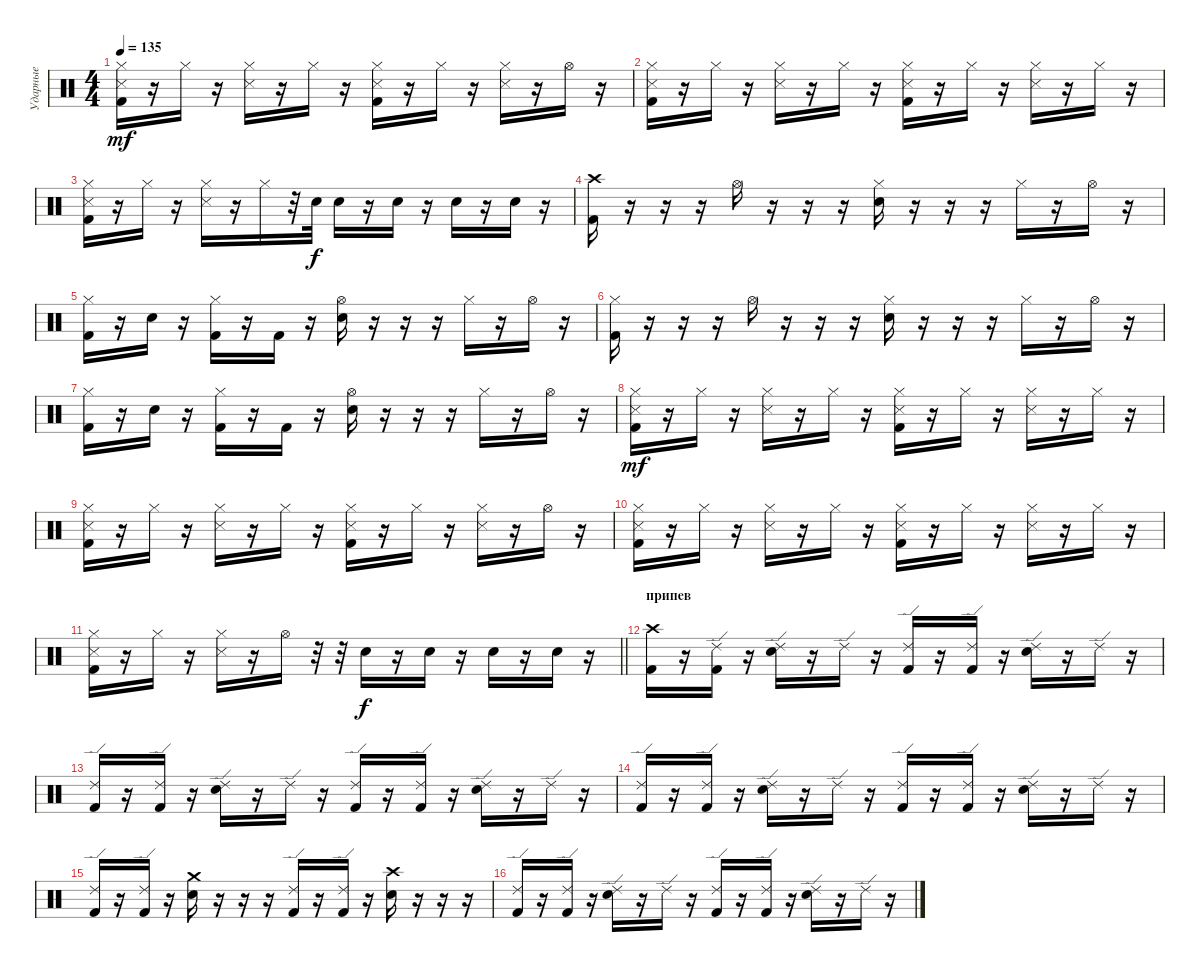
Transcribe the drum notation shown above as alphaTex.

\track ("Ударные" "Ударные") {instrument percussion}
\staff {score}
\articulation defaults
\ts (4 4)
\tempo 135
\clef neutral
\ks c
("Hi-Hat (closed)" "Snare (side stick) 3" "Kick (hit) 2").16{dy mf} r.16 "Hi-Hat (closed)".16 r.16 ("Hi-Hat (closed)" "Snare (side stick) 3").16 r.16 "Hi-Hat (closed)".16 r.16 ("Hi-Hat (closed)" "Snare (side stick) 3" "Kick (hit) 2").16 r.16 "Hi-Hat (closed)".16 r.16 ("Hi-Hat (closed)" "Snare (side stick) 3").16 r.16 "Hi-Hat (open)".16 r.16 |
("Hi-Hat (closed)" "Snare (side stick) 3" "Kick (hit) 2").16 r.16 "Hi-Hat (closed)".16 r.16 ("Hi-Hat (closed)" "Snare (side stick) 3").16 r.16 "Hi-Hat (closed)".16 r.16 ("Hi-Hat (closed)" "Snare (side stick) 3" "Kick (hit) 2").16 r.16 "Hi-Hat (closed)".16 r.16 ("Hi-Hat (closed)" "Snare (side stick) 3").16 r.16 "Hi-Hat (closed)".16 r.16 |
("Hi-Hat (closed)" "Snare (side stick) 3" "Kick (hit) 2").16 r.16 "Hi-Hat (closed)".16 r.16 ("Hi-Hat (closed)" "Snare (side stick) 3").16 r.16 "Hi-Hat (closed)".16 r.32 "Electric Snare (hit)".32{dy f} "Electric Snare (hit)".16 r.16 "Electric Snare (hit)".16 r.16 "Electric Snare (hit)".16 r.16 "Electric Snare (hit)".16 r.16 |
("Crash high (hit)" "Kick (hit) 2").16 r.16 r.16 r.16 "Hi-Hat (open)".16 r.16 r.16 r.16 ("Hi-Hat (closed)" "Electric Snare (hit)").16 r.16 r.16 r.16 "Hi-Hat (closed)".16 r.16 "Hi-Hat (open)".16 r.16 |
("Hi-Hat (closed)" "Kick (hit) 2").16 r.16 "Electric Snare (hit)".16 r.16 ("Hi-Hat (closed)" "Kick (hit) 2").16 r.16 "Kick (hit) 2".16 r.16 ("Hi-Hat (open)" "Electric Snare (hit)").16 r.16 r.16 r.16 "Hi-Hat (closed)".16 r.16 "Hi-Hat (open)".16 r.16 |
("Hi-Hat (closed)" "Kick (hit) 2").16 r.16 r.16 r.16 "Hi-Hat (open)".16 r.16 r.16 r.16 ("Hi-Hat (closed)" "Electric Snare (hit)").16 r.16 r.16 r.16 "Hi-Hat (closed)".16 r.16 "Hi-Hat (open)".16 r.16 |
("Hi-Hat (closed)" "Kick (hit) 2").16 r.16 "Electric Snare (hit)".16 r.16 ("Hi-Hat (closed)" "Kick (hit) 2").16 r.16 "Kick (hit) 2".16 r.16 ("Hi-Hat (open)" "Electric Snare (hit)").16 r.16 r.16 r.16 "Hi-Hat (closed)".16 r.16 "Hi-Hat (open)".16 r.16 |
("Hi-Hat (closed)" "Snare (side stick) 3" "Kick (hit) 2").16{dy mf} r.16 "Hi-Hat (closed)".16 r.16 ("Hi-Hat (closed)" "Snare (side stick) 3").16 r.16 "Hi-Hat (closed)".16 r.16 ("Hi-Hat (closed)" "Snare (side stick) 3" "Kick (hit) 2").16 r.16 "Hi-Hat (closed)".16 r.16 ("Hi-Hat (closed)" "Snare (side stick) 3").16 r.16 "Hi-Hat (closed)".16 r.16 |
("Hi-Hat (closed)" "Snare (side stick) 3" "Kick (hit) 2").16 r.16 "Hi-Hat (closed)".16 r.16 ("Hi-Hat (closed)" "Snare (side stick) 3").16 r.16 "Hi-Hat (closed)".16 r.16 ("Hi-Hat (closed)" "Snare (side stick) 3" "Kick (hit) 2").16 r.16 "Hi-Hat (closed)".16 r.16 ("Hi-Hat (closed)" "Snare (side stick) 3").16 r.16 "Hi-Hat (open)".16 r.16 |
("Hi-Hat (closed)" "Snare (side stick) 3" "Kick (hit) 2").16 r.16 "Hi-Hat (closed)".16 r.16 ("Hi-Hat (closed)" "Snare (side stick) 3").16 r.16 "Hi-Hat (closed)".16 r.16 ("Hi-Hat (closed)" "Snare (side stick) 3" "Kick (hit) 2").16 r.16 "Hi-Hat (closed)".16 r.16 ("Hi-Hat (closed)" "Snare (side stick) 3").16 r.16 "Hi-Hat (closed)".16 r.16 |
\barLineRight lightlight
("Hi-Hat (closed)" "Snare (side stick) 3" "Kick (hit) 2").16 r.16 "Hi-Hat (closed)".16 r.16 ("Hi-Hat (closed)" "Snare (side stick) 3").16 r.16 "Hi-Hat (open)".16 r.32 r.32 "Electric Snare (hit)".16{dy f} r.16 "Electric Snare (hit)".16 r.16 "Electric Snare (hit)".16 r.16 "Electric Snare (hit)".16 r.16 |
\section ("" "припев")
("Crash high (hit)" "Kick (hit) 2").16 r.16 ("Ride (edge) 2" "Kick (hit) 2").16 r.16 ("Ride (edge) 2" "Electric Snare (hit)").16 r.16 "Ride (edge) 2".16 r.16 ("Ride (edge) 2" "Kick (hit) 2").16 r.16 ("Ride (edge) 2" "Kick (hit) 2").16 r.16 ("Ride (edge) 2" "Electric Snare (hit)").16 r.16 "Ride (edge) 2".16 r.16 |
("Ride (edge) 2" "Kick (hit) 2").16 r.16 ("Ride (edge) 2" "Kick (hit) 2").16 r.16 ("Ride (edge) 2" "Electric Snare (hit)").16 r.16 "Ride (edge) 2".16 r.16 ("Ride (edge) 2" "Kick (hit) 2").16 r.16 ("Ride (edge) 2" "Kick (hit) 2").16 r.16 ("Ride (edge) 2" "Electric Snare (hit)").16 r.16 "Ride (edge) 2".16 r.16 |
("Ride (edge) 2" "Kick (hit) 2").16 r.16 ("Ride (edge) 2" "Kick (hit) 2").16 r.16 ("Ride (edge) 2" "Electric Snare (hit)").16 r.16 "Ride (edge) 2".16 r.16 ("Ride (edge) 2" "Kick (hit) 2").16 r.16 ("Ride (edge) 2" "Kick (hit) 2").16 r.16 ("Ride (edge) 2" "Electric Snare (hit)").16 r.16 "Ride (edge) 2".16 r.16 |
("Ride (edge) 2" "Kick (hit) 2").16 r.16 ("Ride (edge) 2" "Kick (hit) 2").16 r.16 ("Crash medium (hit)" "Electric Snare (hit)").16 r.16 r.16 r.16 ("Ride (edge) 2" "Kick (hit) 2").16 r.16 ("Ride (edge) 2" "Kick (hit) 2").16 r.16 ("Crash high (hit)" "Electric Snare (hit)").16 r.16 r.16 r.16 |
("Ride (edge) 2" "Kick (hit) 2").16 r.16 ("Ride (edge) 2" "Kick (hit) 2").16 r.16 ("Ride (edge) 2" "Electric Snare (hit)").16 r.16 "Ride (edge) 2".16 r.16 ("Ride (edge) 2" "Kick (hit) 2").16 r.16 ("Ride (edge) 2" "Kick (hit) 2").16 r.16 ("Ride (edge) 2" "Electric Snare (hit)").16 r.16 "Ride (edge) 2".16 r.16
